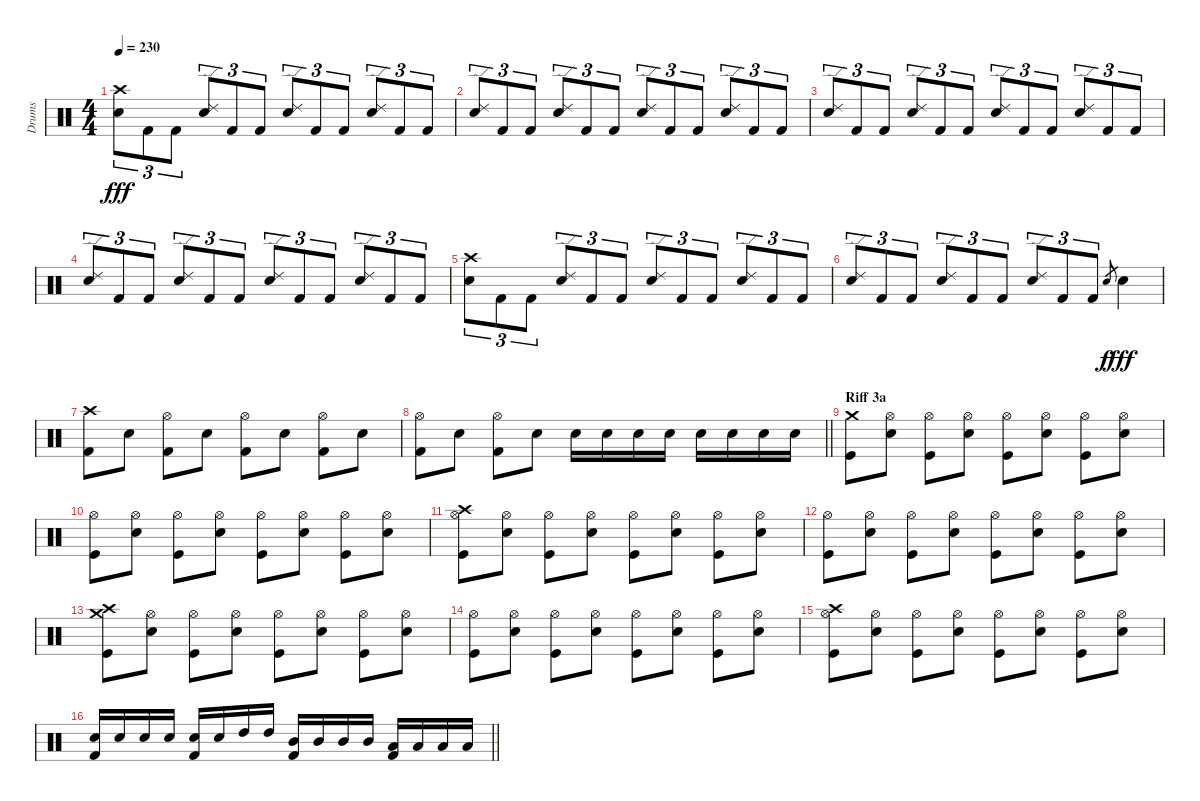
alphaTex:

\track ("Drums" "Drums") {instrument percussion}
\staff {score}
\articulation defaults
\ts (4 4)
\tempo 230
\clef neutral
\ks c
("Crash high (hit)" "Electric Snare (hit)").8{tu (3 2) dy fff} "Kick (hit) 2".8{tu (3 2)} "Kick (hit) 2".8{tu (3 2)} ("Ride (edge) 2" "Electric Snare (hit)").8{tu (3 2)} "Kick (hit) 2".8{tu (3 2)} "Kick (hit) 2".8{tu (3 2)} ("Ride (edge) 2" "Electric Snare (hit)").8{tu (3 2)} "Kick (hit) 2".8{tu (3 2)} "Kick (hit) 2".8{tu (3 2)} ("Ride (edge) 2" "Electric Snare (hit)").8{tu (3 2)} "Kick (hit) 2".8{tu (3 2)} "Kick (hit) 2".8{tu (3 2)} |
("Ride (edge) 2" "Electric Snare (hit)").8{tu (3 2)} "Kick (hit) 2".8{tu (3 2)} "Kick (hit) 2".8{tu (3 2)} ("Ride (edge) 2" "Electric Snare (hit)").8{tu (3 2)} "Kick (hit) 2".8{tu (3 2)} "Kick (hit) 2".8{tu (3 2)} ("Ride (edge) 2" "Electric Snare (hit)").8{tu (3 2)} "Kick (hit) 2".8{tu (3 2)} "Kick (hit) 2".8{tu (3 2)} ("Ride (edge) 2" "Electric Snare (hit)").8{tu (3 2)} "Kick (hit) 2".8{tu (3 2)} "Kick (hit) 2".8{tu (3 2)} |
("Ride (edge) 2" "Electric Snare (hit)").8{tu (3 2)} "Kick (hit) 2".8{tu (3 2)} "Kick (hit) 2".8{tu (3 2)} ("Ride (edge) 2" "Electric Snare (hit)").8{tu (3 2)} "Kick (hit) 2".8{tu (3 2)} "Kick (hit) 2".8{tu (3 2)} ("Ride (edge) 2" "Electric Snare (hit)").8{tu (3 2)} "Kick (hit) 2".8{tu (3 2)} "Kick (hit) 2".8{tu (3 2)} ("Ride (edge) 2" "Electric Snare (hit)").8{tu (3 2)} "Kick (hit) 2".8{tu (3 2)} "Kick (hit) 2".8{tu (3 2)} |
("Ride (edge) 2" "Electric Snare (hit)").8{tu (3 2)} "Kick (hit) 2".8{tu (3 2)} "Kick (hit) 2".8{tu (3 2)} ("Ride (edge) 2" "Electric Snare (hit)").8{tu (3 2)} "Kick (hit) 2".8{tu (3 2)} "Kick (hit) 2".8{tu (3 2)} ("Ride (edge) 2" "Electric Snare (hit)").8{tu (3 2)} "Kick (hit) 2".8{tu (3 2)} "Kick (hit) 2".8{tu (3 2)} ("Ride (edge) 2" "Electric Snare (hit)").8{tu (3 2)} "Kick (hit) 2".8{tu (3 2)} "Kick (hit) 2".8{tu (3 2)} |
("Crash high (hit)" "Electric Snare (hit)").8{tu (3 2)} "Kick (hit) 2".8{tu (3 2)} "Kick (hit) 2".8{tu (3 2)} ("Ride (edge) 2" "Electric Snare (hit)").8{tu (3 2)} "Kick (hit) 2".8{tu (3 2)} "Kick (hit) 2".8{tu (3 2)} ("Ride (edge) 2" "Electric Snare (hit)").8{tu (3 2)} "Kick (hit) 2".8{tu (3 2)} "Kick (hit) 2".8{tu (3 2)} ("Ride (edge) 2" "Electric Snare (hit)").8{tu (3 2)} "Kick (hit) 2".8{tu (3 2)} "Kick (hit) 2".8{tu (3 2)} |
("Ride (edge) 2" "Electric Snare (hit)").8{tu (3 2)} "Kick (hit) 2".8{tu (3 2)} "Kick (hit) 2".8{tu (3 2)} ("Ride (edge) 2" "Electric Snare (hit)").8{tu (3 2)} "Kick (hit) 2".8{tu (3 2)} "Kick (hit) 2".8{tu (3 2)} ("Ride (edge) 2" "Electric Snare (hit)").8{tu (3 2)} "Kick (hit) 2".8{tu (3 2)} "Kick (hit) 2".8{tu (3 2)} "Electric Snare (hit)".8{gr dy f} "Electric Snare (hit)".4{dy fff} |
("Crash high (hit)" "Kick (hit) 2").8 "Electric Snare (hit)".8 ("Hi-Hat (open)" "Kick (hit) 2").8 "Electric Snare (hit)".8 ("Hi-Hat (open)" "Kick (hit) 2").8 "Electric Snare (hit)".8 ("Hi-Hat (open)" "Kick (hit) 2").8 "Electric Snare (hit)".8 |
\barLineRight lightlight
("Hi-Hat (open)" "Kick (hit) 2").8 "Electric Snare (hit)".8 ("Hi-Hat (open)" "Kick (hit) 2").8 "Electric Snare (hit)".8 "Electric Snare (hit)".16 "Electric Snare (hit)".16 "Electric Snare (hit)".16 "Electric Snare (hit)".16 "Electric Snare (hit)".16 "Electric Snare (hit)".16 "Electric Snare (hit)".16 "Electric Snare (hit)".16 |
\section ("" "Riff 3a")
("Crash medium (hit)" "Kick (hit)").8 ("Hi-Hat (open)" "Snare (hit) 2").8 ("Hi-Hat (open)" "Kick (hit)").8 ("Hi-Hat (open)" "Snare (hit) 2").8 ("Hi-Hat (open)" "Kick (hit)").8 ("Hi-Hat (open)" "Snare (hit) 2").8 ("Hi-Hat (open)" "Kick (hit)").8 ("Hi-Hat (open)" "Snare (hit) 2").8 |
("Hi-Hat (open)" "Kick (hit)").8 ("Hi-Hat (open)" "Snare (hit) 2").8 ("Hi-Hat (open)" "Kick (hit)").8 ("Hi-Hat (open)" "Snare (hit) 2").8 ("Hi-Hat (open)" "Kick (hit)").8 ("Hi-Hat (open)" "Snare (hit) 2").8 ("Hi-Hat (open)" "Kick (hit)").8 ("Hi-Hat (open)" "Snare (hit) 2").8 |
("Crash high (hit)" "Hi-Hat (open)" "Kick (hit)").8 ("Hi-Hat (open)" "Snare (hit) 2").8 ("Hi-Hat (open)" "Kick (hit)").8 ("Hi-Hat (open)" "Snare (hit) 2").8 ("Hi-Hat (open)" "Kick (hit)").8 ("Hi-Hat (open)" "Snare (hit) 2").8 ("Hi-Hat (open)" "Kick (hit)").8 ("Hi-Hat (open)" "Snare (hit) 2").8 |
("Hi-Hat (open)" "Kick (hit)").8 ("Hi-Hat (open)" "Snare (hit) 2").8 ("Hi-Hat (open)" "Kick (hit)").8 ("Hi-Hat (open)" "Snare (hit) 2").8 ("Hi-Hat (open)" "Kick (hit)").8 ("Hi-Hat (open)" "Snare (hit) 2").8 ("Hi-Hat (open)" "Kick (hit)").8 ("Hi-Hat (open)" "Snare (hit) 2").8 |
("Crash medium (hit)" "Crash high (hit)" "Kick (hit)").8 ("Hi-Hat (open)" "Snare (hit) 2").8 ("Hi-Hat (open)" "Kick (hit)").8 ("Hi-Hat (open)" "Snare (hit) 2").8 ("Hi-Hat (open)" "Kick (hit)").8 ("Hi-Hat (open)" "Snare (hit) 2").8 ("Hi-Hat (open)" "Kick (hit)").8 ("Hi-Hat (open)" "Snare (hit) 2").8 |
("Hi-Hat (open)" "Kick (hit)").8 ("Hi-Hat (open)" "Snare (hit) 2").8 ("Hi-Hat (open)" "Kick (hit)").8 ("Hi-Hat (open)" "Snare (hit) 2").8 ("Hi-Hat (open)" "Kick (hit)").8 ("Hi-Hat (open)" "Snare (hit) 2").8 ("Hi-Hat (open)" "Kick (hit)").8 ("Hi-Hat (open)" "Snare (hit) 2").8 |
("Crash high (hit)" "Hi-Hat (open)" "Kick (hit)").8 ("Hi-Hat (open)" "Snare (hit) 2").8 ("Hi-Hat (open)" "Kick (hit)").8 ("Hi-Hat (open)" "Snare (hit) 2").8 ("Hi-Hat (open)" "Kick (hit)").8 ("Hi-Hat (open)" "Snare (hit) 2").8 ("Hi-Hat (open)" "Kick (hit)").8 ("Hi-Hat (open)" "Snare (hit) 2").8 |
\barLineRight lightlight
("Electric Snare (hit)" "Kick (hit) 2").16 "Electric Snare (hit)".16 "Electric Snare (hit)".16 "Electric Snare (hit)".16 ("Electric Snare (hit)" "Kick (hit) 2").16 "Electric Snare (hit)".16 "High Tom (hit)".16 "High Tom (hit)".16 ("Mid Tom (hit)" "Kick (hit) 2").16 "Mid Tom (hit)".16 "Mid Tom (hit)".16 "Mid Tom (hit)".16 ("Low Tom (hit)" "Kick (hit) 2").16 "Low Tom (hit)".16 "Low Tom (hit)".16 "Low Tom (hit)".16
